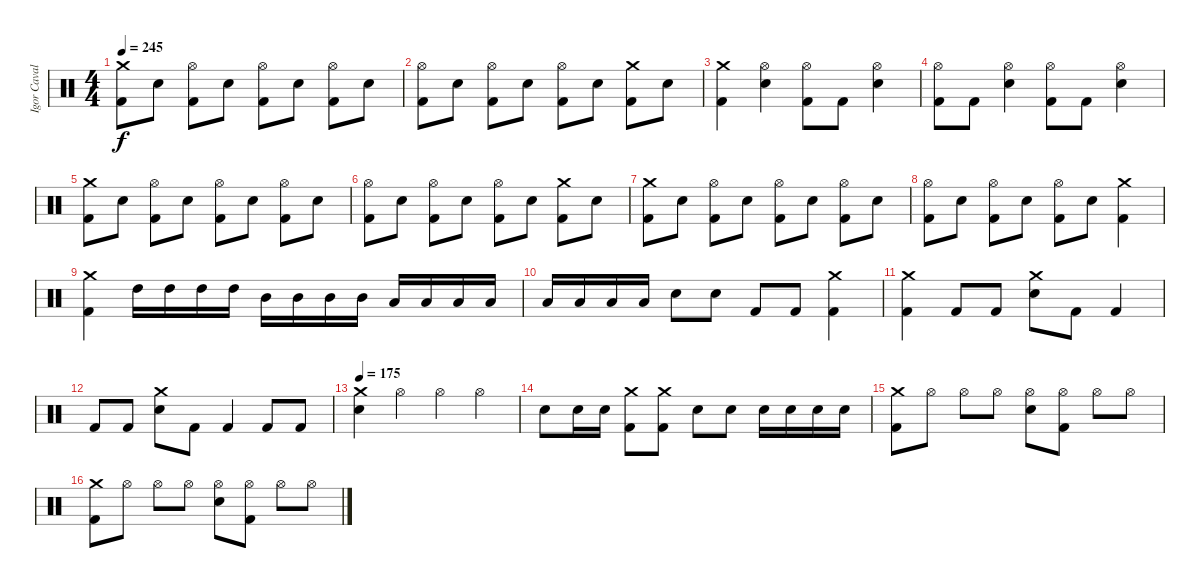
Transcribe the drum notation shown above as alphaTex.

\track ("Igor Cavalera" "Igor Caval") {instrument percussion}
\staff {score}
\articulation defaults
\ts (4 4)
\tempo 245
\clef neutral
\ks c
("Crash medium (hit)" "Kick (hit) 2").8{dy f} "Electric Snare (hit)".8 ("Hi-Hat (open)" "Kick (hit) 2").8 "Electric Snare (hit)".8 ("Hi-Hat (open)" "Kick (hit) 2").8 "Electric Snare (hit)".8 ("Hi-Hat (open)" "Kick (hit) 2").8 "Electric Snare (hit)".8 |
("Hi-Hat (open)" "Kick (hit) 2").8 "Electric Snare (hit)".8 ("Hi-Hat (open)" "Kick (hit) 2").8 "Electric Snare (hit)".8 ("Hi-Hat (open)" "Kick (hit) 2").8 "Electric Snare (hit)".8 ("Crash medium (hit)" "Kick (hit) 2").8 "Electric Snare (hit)".8 |
("Crash medium (hit)" "Kick (hit) 2").4 ("Hi-Hat (open)" "Electric Snare (hit)").4 ("Hi-Hat (open)" "Kick (hit) 2").8 "Kick (hit) 2".8 ("Hi-Hat (open)" "Electric Snare (hit)").4 |
("Hi-Hat (open)" "Kick (hit) 2").8 "Kick (hit) 2".8 ("Hi-Hat (open)" "Electric Snare (hit)").4 ("Hi-Hat (open)" "Kick (hit) 2").8 "Kick (hit) 2".8 ("Hi-Hat (open)" "Electric Snare (hit)").4 |
("Crash medium (hit)" "Kick (hit) 2").8 "Electric Snare (hit)".8 ("Hi-Hat (open)" "Kick (hit) 2").8 "Electric Snare (hit)".8 ("Hi-Hat (open)" "Kick (hit) 2").8 "Electric Snare (hit)".8 ("Hi-Hat (open)" "Kick (hit) 2").8 "Electric Snare (hit)".8 |
("Hi-Hat (open)" "Kick (hit) 2").8 "Electric Snare (hit)".8 ("Hi-Hat (open)" "Kick (hit) 2").8 "Electric Snare (hit)".8 ("Hi-Hat (open)" "Kick (hit) 2").8 "Electric Snare (hit)".8 ("Crash medium (hit)" "Kick (hit) 2").8 "Electric Snare (hit)".8 |
("Crash medium (hit)" "Kick (hit) 2").8 "Electric Snare (hit)".8 ("Hi-Hat (open)" "Kick (hit) 2").8 "Electric Snare (hit)".8 ("Hi-Hat (open)" "Kick (hit) 2").8 "Electric Snare (hit)".8 ("Hi-Hat (open)" "Kick (hit) 2").8 "Electric Snare (hit)".8 |
("Hi-Hat (open)" "Kick (hit) 2").8 "Electric Snare (hit)".8 ("Hi-Hat (open)" "Kick (hit) 2").8 "Electric Snare (hit)".8 ("Hi-Hat (open)" "Kick (hit) 2").8 "Electric Snare (hit)".8 ("Crash medium (hit)" "Kick (hit) 2").4 |
("Crash medium (hit)" "Kick (hit) 2").4 "High Tom (hit)".16 "High Tom (hit)".16 "High Tom (hit)".16 "High Tom (hit)".16 "Mid Tom (hit)".16 "Mid Tom (hit)".16 "Mid Tom (hit)".16 "Mid Tom (hit)".16 "Low Tom (hit)".16 "Low Tom (hit)".16 "Low Tom (hit)".16 "Low Tom (hit)".16 |
"Low Tom (hit)".16 "Low Tom (hit)".16 "Low Tom (hit)".16 "Low Tom (hit)".16 "Electric Snare (hit)".8 "Electric Snare (hit)".8 "Kick (hit) 2".8 "Kick (hit) 2".8 ("Crash medium (hit)" "Kick (hit) 2").4 |
("Crash medium (hit)" "Kick (hit) 2").4 "Kick (hit) 2".8 "Kick (hit) 2".8 ("Crash medium (hit)" "Electric Snare (hit)").8 "Kick (hit) 2".8 "Kick (hit) 2".4 |
"Kick (hit) 2".8 "Kick (hit) 2".8 ("Crash medium (hit)" "Electric Snare (hit)").8 "Kick (hit) 2".8 "Kick (hit) 2".4 "Kick (hit) 2".8 "Kick (hit) 2".8 |
\tempo 175
("Crash medium (hit)" "Electric Snare (hit)").4 "Hi-Hat (open)".4 "Hi-Hat (open)".4 "Hi-Hat (open)".4 |
"Electric Snare (hit)".8 "Electric Snare (hit)".16 "Electric Snare (hit)".16 ("Crash medium (hit)" "Kick (hit) 2").8 ("Kick (hit) 2" "Crash medium (hit)").8 "Electric Snare (hit)".8 "Electric Snare (hit)".8 "Electric Snare (hit)".16 "Electric Snare (hit)".16 "Electric Snare (hit)".16 "Electric Snare (hit)".16 |
("Kick (hit) 2" "Crash medium (hit)").8 "Hi-Hat (open)".8 "Hi-Hat (open)".8 "Hi-Hat (open)".8 ("Electric Snare (hit)" "Hi-Hat (open)").8 ("Kick (hit) 2" "Hi-Hat (open)").8 "Hi-Hat (open)".8 "Hi-Hat (open)".8 |
("Kick (hit) 2" "Crash medium (hit)").8 "Hi-Hat (open)".8 "Hi-Hat (open)".8 "Hi-Hat (open)".8 ("Electric Snare (hit)" "Hi-Hat (open)").8 ("Kick (hit) 2" "Hi-Hat (open)").8 "Hi-Hat (open)".8 "Hi-Hat (open)".8
